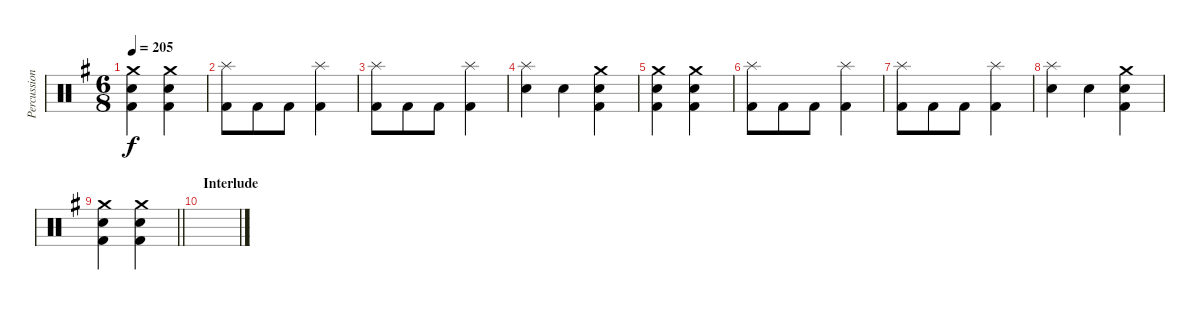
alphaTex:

\track ("Percussion" "Percussion") {instrument percussion}
\staff {score}
\articulation defaults
\ts (6 8)
\tempo 205
\clef neutral
\ks g
("Crash medium (hit)" "Kick (hit) 2" "Electric Snare (hit)").4{dy f} ("Crash medium (hit)" "Kick (hit) 2" "Electric Snare (hit)").4 |
("Splash (hit)" "Kick (hit) 2").8 "Kick (hit) 2".8 "Kick (hit) 2".8 ("Splash (hit)" "Kick (hit) 2").4 |
("Splash (hit)" "Kick (hit) 2").8 "Kick (hit) 2".8 "Kick (hit) 2".8 ("Splash (hit)" "Kick (hit) 2").4 |
("Splash (hit)" "Electric Snare (hit)").4 "Snare (hit)".4 ("Crash medium (hit)" "Kick (hit) 2" "Electric Snare (hit)").4 |
("Crash medium (hit)" "Kick (hit) 2" "Electric Snare (hit)").4 ("Crash medium (hit)" "Kick (hit) 2" "Electric Snare (hit)").4 |
("Splash (hit)" "Kick (hit) 2").8 "Kick (hit) 2".8 "Kick (hit) 2".8 ("Splash (hit)" "Kick (hit) 2").4 |
("Splash (hit)" "Kick (hit) 2").8 "Kick (hit) 2".8 "Kick (hit) 2".8 ("Splash (hit)" "Kick (hit) 2").4 |
("Splash (hit)" "Electric Snare (hit)").4 "Snare (hit)".4 ("Crash medium (hit)" "Kick (hit) 2" "Electric Snare (hit)").4 |
\barLineRight lightlight
("Crash medium (hit)" "Kick (hit) 2" "Electric Snare (hit)").4 ("Crash medium (hit)" "Kick (hit) 2" "Electric Snare (hit)").4 |
\section ("" "Interlude")
